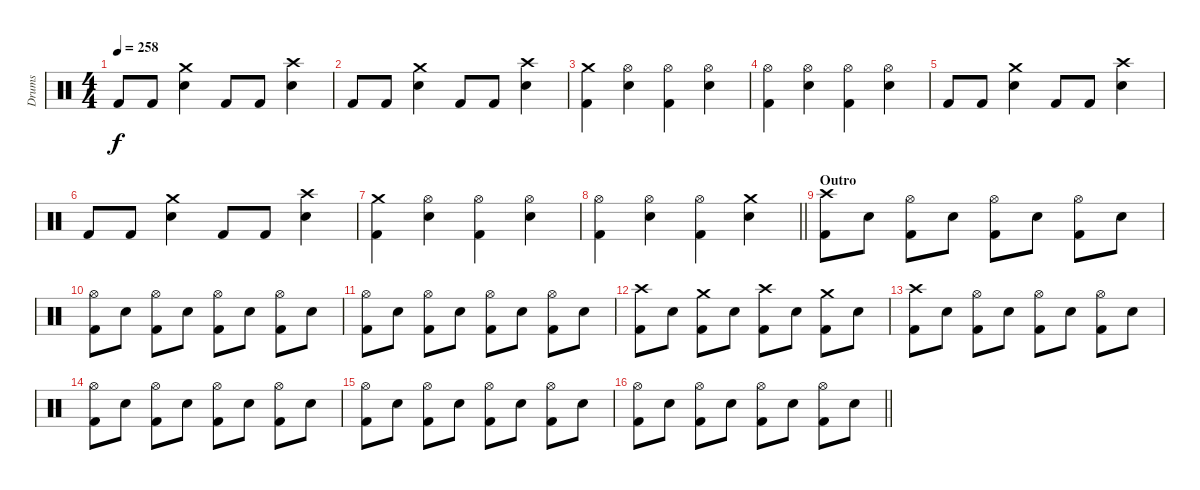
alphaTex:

\track ("Drums" "Drums") {instrument percussion}
\staff {score}
\articulation defaults
\ts (4 4)
\tempo 258
\clef neutral
\ks c "Kick (hit) 2".8{dy f} "Kick (hit) 2".8
("Crash medium (hit)" "Electric Snare (hit)").4 "Kick (hit) 2".8 "Kick (hit) 2".8 ("Crash high (hit)" "Electric Snare (hit)").4 |
"Kick (hit) 2".8 "Kick (hit) 2".8 ("Crash medium (hit)" "Electric Snare (hit)").4 "Kick (hit) 2".8 "Kick (hit) 2".8 ("Crash high (hit)" "Electric Snare (hit)").4 |
("Crash medium (hit)" "Kick (hit) 2").4 ("Hi-Hat (open)" "Electric Snare (hit)").4 ("Hi-Hat (open)" "Kick (hit) 2").4 ("Hi-Hat (open)" "Electric Snare (hit)").4 |
("Hi-Hat (open)" "Kick (hit) 2").4 ("Hi-Hat (open)" "Electric Snare (hit)").4 ("Hi-Hat (open)" "Kick (hit) 2").4 ("Hi-Hat (open)" "Electric Snare (hit)").4 |
"Kick (hit) 2".8 "Kick (hit) 2".8 ("Crash medium (hit)" "Electric Snare (hit)").4 "Kick (hit) 2".8 "Kick (hit) 2".8 ("Crash high (hit)" "Electric Snare (hit)").4 |
"Kick (hit) 2".8 "Kick (hit) 2".8 ("Crash medium (hit)" "Electric Snare (hit)").4 "Kick (hit) 2".8 "Kick (hit) 2".8 ("Crash high (hit)" "Electric Snare (hit)").4 |
("Crash medium (hit)" "Kick (hit) 2").4 ("Hi-Hat (open)" "Electric Snare (hit)").4 ("Hi-Hat (open)" "Kick (hit) 2").4 ("Hi-Hat (open)" "Electric Snare (hit)").4 |
\barLineRight lightlight
("Hi-Hat (open)" "Kick (hit) 2").4 ("Hi-Hat (open)" "Electric Snare (hit)").4 ("Hi-Hat (open)" "Kick (hit) 2").4 ("Crash medium (hit)" "Electric Snare (hit)").4 |
\section ("" "Outro")
("Crash high (hit)" "Kick (hit) 2").8 "Electric Snare (hit)".8 ("Hi-Hat (open)" "Kick (hit) 2").8 "Electric Snare (hit)".8 ("Hi-Hat (open)" "Kick (hit) 2").8 "Electric Snare (hit)".8 ("Hi-Hat (open)" "Kick (hit) 2").8 "Electric Snare (hit)".8 |
("Hi-Hat (open)" "Kick (hit) 2").8 "Electric Snare (hit)".8 ("Hi-Hat (open)" "Kick (hit) 2").8 "Electric Snare (hit)".8 ("Hi-Hat (open)" "Kick (hit) 2").8 "Electric Snare (hit)".8 ("Hi-Hat (open)" "Kick (hit) 2").8 "Electric Snare (hit)".8 |
("Hi-Hat (open)" "Kick (hit) 2").8 "Electric Snare (hit)".8 ("Hi-Hat (open)" "Kick (hit) 2").8 "Electric Snare (hit)".8 ("Hi-Hat (open)" "Kick (hit) 2").8 "Electric Snare (hit)".8 ("Hi-Hat (open)" "Kick (hit) 2").8 "Electric Snare (hit)".8 |
("Crash high (hit)" "Kick (hit) 2").8 "Electric Snare (hit)".8 ("Crash medium (hit)" "Kick (hit) 2").8 "Electric Snare (hit)".8 ("Crash high (hit)" "Kick (hit) 2").8 "Electric Snare (hit)".8 ("Crash medium (hit)" "Kick (hit) 2").8 "Electric Snare (hit)".8 |
("Crash high (hit)" "Kick (hit) 2").8 "Electric Snare (hit)".8 ("Hi-Hat (open)" "Kick (hit) 2").8 "Electric Snare (hit)".8 ("Hi-Hat (open)" "Kick (hit) 2").8 "Electric Snare (hit)".8 ("Hi-Hat (open)" "Kick (hit) 2").8 "Electric Snare (hit)".8 |
("Hi-Hat (open)" "Kick (hit) 2").8 "Electric Snare (hit)".8 ("Hi-Hat (open)" "Kick (hit) 2").8 "Electric Snare (hit)".8 ("Hi-Hat (open)" "Kick (hit) 2").8 "Electric Snare (hit)".8 ("Hi-Hat (open)" "Kick (hit) 2").8 "Electric Snare (hit)".8 |
("Hi-Hat (open)" "Kick (hit) 2").8 "Electric Snare (hit)".8 ("Hi-Hat (open)" "Kick (hit) 2").8 "Electric Snare (hit)".8 ("Hi-Hat (open)" "Kick (hit) 2").8 "Electric Snare (hit)".8 ("Hi-Hat (open)" "Kick (hit) 2").8 "Electric Snare (hit)".8 |
\barLineRight lightlight
("Hi-Hat (open)" "Kick (hit) 2").8 "Electric Snare (hit)".8 ("Hi-Hat (open)" "Kick (hit) 2").8 "Electric Snare (hit)".8 ("Hi-Hat (open)" "Kick (hit) 2").8 "Electric Snare (hit)".8 ("Hi-Hat (open)" "Kick (hit) 2").8 "Electric Snare (hit)".8
